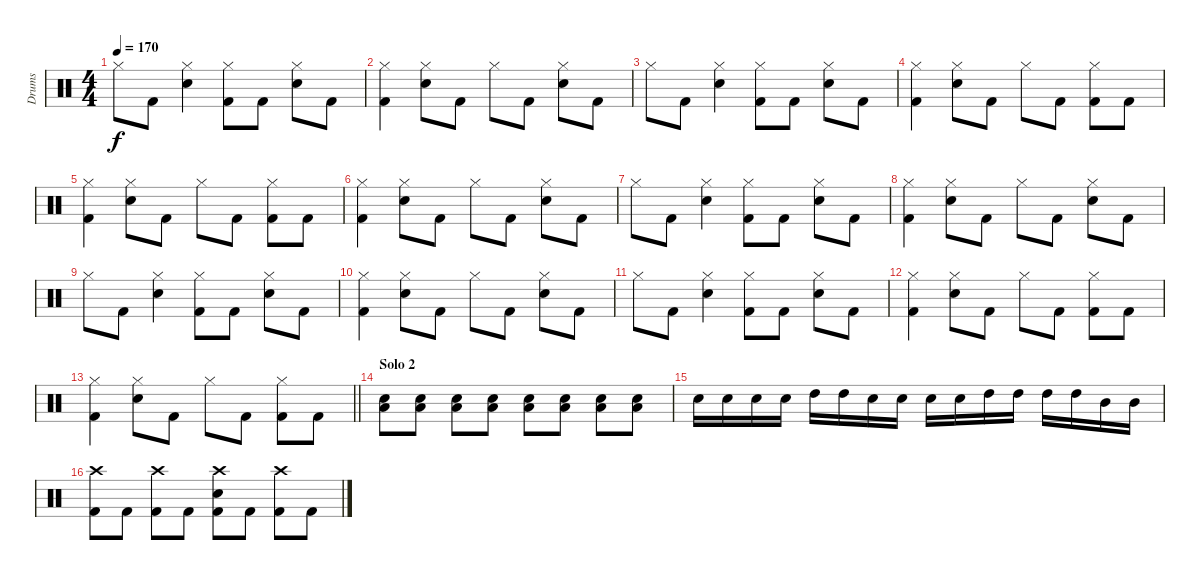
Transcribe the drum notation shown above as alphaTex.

\track ("Drums" "Drums") {instrument percussion}
\staff {score}
\articulation defaults
\ts (4 4)
\tempo 170
\clef neutral
\ks c "Hi-Hat (closed)".8{dy f} "Kick (hit) 2".8
("Hi-Hat (closed)" "Snare (hit) 2").4 ("Hi-Hat (closed)" "Kick (hit) 2").8 "Kick (hit) 2".8 ("Hi-Hat (closed)" "Snare (hit) 2").8 "Kick (hit) 2".8 |
("Hi-Hat (closed)" "Kick (hit) 2").4 ("Hi-Hat (closed)" "Snare (hit) 2").8 "Kick (hit) 2".8 "Hi-Hat (closed)".8 "Kick (hit) 2".8 ("Hi-Hat (closed)" "Snare (hit) 2").8 "Kick (hit) 2".8 |
"Hi-Hat (closed)".8 "Kick (hit) 2".8 ("Hi-Hat (closed)" "Snare (hit) 2").4 ("Hi-Hat (closed)" "Kick (hit) 2").8 "Kick (hit) 2".8 ("Hi-Hat (closed)" "Snare (hit) 2").8 "Kick (hit) 2".8 |
("Hi-Hat (closed)" "Kick (hit) 2").4 ("Hi-Hat (closed)" "Snare (hit) 2").8 "Kick (hit) 2".8 "Hi-Hat (closed)".8 "Kick (hit) 2".8 ("Hi-Hat (closed)" "Kick (hit) 2").8 "Kick (hit) 2".8 |
("Hi-Hat (closed)" "Kick (hit) 2").4 ("Hi-Hat (closed)" "Snare (hit) 2").8 "Kick (hit) 2".8 "Hi-Hat (closed)".8 "Kick (hit) 2".8 ("Hi-Hat (closed)" "Kick (hit) 2").8 "Kick (hit) 2".8 |
("Hi-Hat (closed)" "Kick (hit) 2").4 ("Hi-Hat (closed)" "Snare (hit) 2").8 "Kick (hit) 2".8 "Hi-Hat (closed)".8 "Kick (hit) 2".8 ("Hi-Hat (closed)" "Snare (hit) 2").8 "Kick (hit) 2".8 |
"Hi-Hat (closed)".8 "Kick (hit) 2".8 ("Hi-Hat (closed)" "Snare (hit) 2").4 ("Hi-Hat (closed)" "Kick (hit) 2").8 "Kick (hit) 2".8 ("Hi-Hat (closed)" "Snare (hit) 2").8 "Kick (hit) 2".8 |
("Hi-Hat (closed)" "Kick (hit) 2").4 ("Hi-Hat (closed)" "Snare (hit) 2").8 "Kick (hit) 2".8 "Hi-Hat (closed)".8 "Kick (hit) 2".8 ("Hi-Hat (closed)" "Snare (hit) 2").8 "Kick (hit) 2".8 |
"Hi-Hat (closed)".8 "Kick (hit) 2".8 ("Hi-Hat (closed)" "Snare (hit) 2").4 ("Hi-Hat (closed)" "Kick (hit) 2").8 "Kick (hit) 2".8 ("Hi-Hat (closed)" "Snare (hit) 2").8 "Kick (hit) 2".8 |
("Hi-Hat (closed)" "Kick (hit) 2").4 ("Hi-Hat (closed)" "Snare (hit) 2").8 "Kick (hit) 2".8 "Hi-Hat (closed)".8 "Kick (hit) 2".8 ("Hi-Hat (closed)" "Snare (hit) 2").8 "Kick (hit) 2".8 |
"Hi-Hat (closed)".8 "Kick (hit) 2".8 ("Hi-Hat (closed)" "Snare (hit) 2").4 ("Hi-Hat (closed)" "Kick (hit) 2").8 "Kick (hit) 2".8 ("Hi-Hat (closed)" "Snare (hit) 2").8 "Kick (hit) 2".8 |
("Hi-Hat (closed)" "Kick (hit) 2").4 ("Hi-Hat (closed)" "Snare (hit) 2").8 "Kick (hit) 2".8 "Hi-Hat (closed)".8 "Kick (hit) 2".8 ("Hi-Hat (closed)" "Kick (hit) 2").8 "Kick (hit) 2".8 |
\barLineRight lightlight
("Hi-Hat (closed)" "Kick (hit) 2").4 ("Hi-Hat (closed)" "Snare (hit) 2").8 "Kick (hit) 2".8 "Hi-Hat (closed)".8 "Kick (hit) 2".8 ("Hi-Hat (closed)" "Kick (hit) 2").8 "Kick (hit) 2".8 |
\section ("" "Solo 2")
("Low Tom (hit)" "Snare (hit) 2").8 ("Low Tom (hit)" "Snare (hit) 2").8 ("Low Tom (hit)" "Snare (hit) 2").8 ("Low Tom (hit)" "Snare (hit) 2").8 ("Low Tom (hit)" "Snare (hit) 2").8 ("Low Tom (hit)" "Snare (hit) 2").8 ("Low Tom (hit)" "Snare (hit) 2").8 ("Low Tom (hit)" "Snare (hit) 2").8 |
"Snare (hit) 2".16 "Snare (hit) 2".16 "Snare (hit) 2".16 "Snare (hit) 2".16 "High Tom (hit)".16 "High Tom (hit)".16 "Snare (hit) 2".16 "Snare (hit) 2".16 "Snare (hit) 2".16 "Snare (hit) 2".16 "High Tom (hit)".16 "High Tom (hit)".16 "High Tom (hit)".16 "High Tom (hit)".16 "Mid Tom (hit)".16 "Mid Tom (hit)".16 |
("Crash high (hit)" "Kick (hit) 2").8 "Kick (hit) 2".8 ("Crash high (hit)" "Kick (hit) 2").8 "Kick (hit) 2".8 ("Crash high (hit)" "Snare (hit) 2" "Kick (hit) 2").8 "Kick (hit) 2".8 ("Crash high (hit)" "Kick (hit) 2").8 "Kick (hit) 2".8
